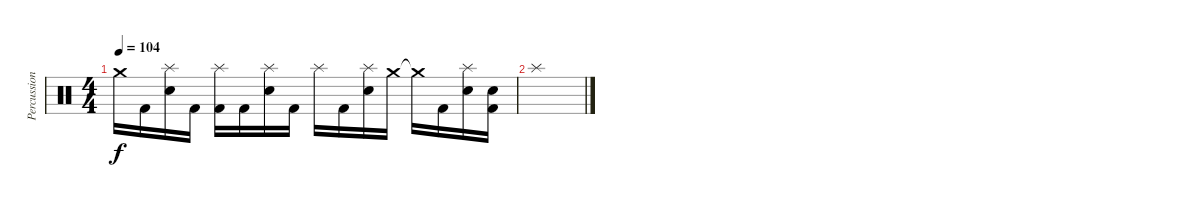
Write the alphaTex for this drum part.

\track ("Percussion" "Percussion") {instrument percussion}
\staff {score}
\articulation defaults
\ts (4 4)
\tempo 104
\clef neutral
\ks c "Crash medium (hit)".16{dy f} "Kick (hit) 2".16
("Splash (hit)" "Electric Snare (hit)").16 "Kick (hit) 2".16 ("Splash (hit)" "Kick (hit) 2").16 "Kick (hit) 2".16 ("Splash (hit)" "Electric Snare (hit)").16 "Kick (hit) 2".16 "Splash (hit)".16 "Kick (hit) 2".16 ("Splash (hit)" "Electric Snare (hit)").16 "Crash medium (hit)".16 "Crash medium (hit)"{t}.16 "Kick (hit) 2".16 ("Electric Snare (hit)" "Splash (hit)").16 ("Electric Snare (hit)" "Kick (hit) 2").16 |
"Splash (hit)".1
